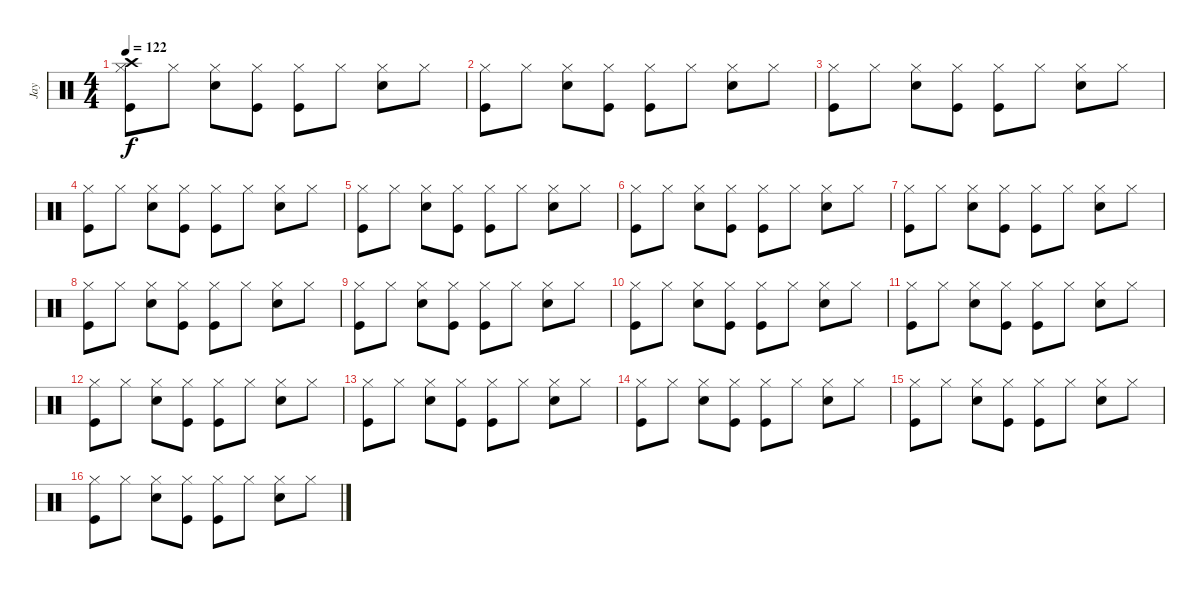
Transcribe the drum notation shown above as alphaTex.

\track ("Jay" "Jay") {instrument percussion}
\staff {score}
\articulation defaults
\ts (4 4)
\tempo 122
\clef neutral
\ks c
("Crash high (hit)" "Hi-Hat (closed)" "Kick (hit)").8{dy f} "Hi-Hat (closed)".8 ("Hi-Hat (closed)" "Electric Snare (hit)").8 ("Hi-Hat (closed)" "Kick (hit)").8 ("Hi-Hat (closed)" "Kick (hit)").8 "Hi-Hat (closed)".8 ("Hi-Hat (closed)" "Electric Snare (hit)").8 "Hi-Hat (closed)".8 |
("Hi-Hat (closed)" "Kick (hit)").8 "Hi-Hat (closed)".8 ("Hi-Hat (closed)" "Electric Snare (hit)").8 ("Hi-Hat (closed)" "Kick (hit)").8 ("Hi-Hat (closed)" "Kick (hit)").8 "Hi-Hat (closed)".8 ("Hi-Hat (closed)" "Electric Snare (hit)").8 "Hi-Hat (closed)".8 |
("Hi-Hat (closed)" "Kick (hit)").8 "Hi-Hat (closed)".8 ("Hi-Hat (closed)" "Electric Snare (hit)").8 ("Hi-Hat (closed)" "Kick (hit)").8 ("Hi-Hat (closed)" "Kick (hit)").8 "Hi-Hat (closed)".8 ("Hi-Hat (closed)" "Electric Snare (hit)").8 "Hi-Hat (closed)".8 |
("Hi-Hat (closed)" "Kick (hit)").8 "Hi-Hat (closed)".8 ("Hi-Hat (closed)" "Electric Snare (hit)").8 ("Hi-Hat (closed)" "Kick (hit)").8 ("Hi-Hat (closed)" "Kick (hit)").8 "Hi-Hat (closed)".8 ("Hi-Hat (closed)" "Electric Snare (hit)").8 "Hi-Hat (closed)".8 |
("Hi-Hat (closed)" "Kick (hit)").8 "Hi-Hat (closed)".8 ("Hi-Hat (closed)" "Electric Snare (hit)").8 ("Hi-Hat (closed)" "Kick (hit)").8 ("Hi-Hat (closed)" "Kick (hit)").8 "Hi-Hat (closed)".8 ("Hi-Hat (closed)" "Electric Snare (hit)").8 "Hi-Hat (closed)".8 |
("Hi-Hat (closed)" "Kick (hit)").8 "Hi-Hat (closed)".8 ("Hi-Hat (closed)" "Electric Snare (hit)").8 ("Hi-Hat (closed)" "Kick (hit)").8 ("Hi-Hat (closed)" "Kick (hit)").8 "Hi-Hat (closed)".8 ("Hi-Hat (closed)" "Electric Snare (hit)").8 "Hi-Hat (closed)".8 |
("Hi-Hat (closed)" "Kick (hit)").8 "Hi-Hat (closed)".8 ("Hi-Hat (closed)" "Electric Snare (hit)").8 ("Hi-Hat (closed)" "Kick (hit)").8 ("Hi-Hat (closed)" "Kick (hit)").8 "Hi-Hat (closed)".8 ("Hi-Hat (closed)" "Electric Snare (hit)").8 "Hi-Hat (closed)".8 |
("Hi-Hat (closed)" "Kick (hit)").8 "Hi-Hat (closed)".8 ("Hi-Hat (closed)" "Electric Snare (hit)").8 ("Hi-Hat (closed)" "Kick (hit)").8 ("Hi-Hat (closed)" "Kick (hit)").8 "Hi-Hat (closed)".8 ("Hi-Hat (closed)" "Electric Snare (hit)").8 "Hi-Hat (closed)".8 |
("Hi-Hat (closed)" "Kick (hit)").8 "Hi-Hat (closed)".8 ("Hi-Hat (closed)" "Electric Snare (hit)").8 ("Hi-Hat (closed)" "Kick (hit)").8 ("Hi-Hat (closed)" "Kick (hit)").8 "Hi-Hat (closed)".8 ("Hi-Hat (closed)" "Electric Snare (hit)").8 "Hi-Hat (closed)".8 |
("Hi-Hat (closed)" "Kick (hit)").8 "Hi-Hat (closed)".8 ("Hi-Hat (closed)" "Electric Snare (hit)").8 ("Hi-Hat (closed)" "Kick (hit)").8 ("Hi-Hat (closed)" "Kick (hit)").8 "Hi-Hat (closed)".8 ("Hi-Hat (closed)" "Electric Snare (hit)").8 "Hi-Hat (closed)".8 |
("Hi-Hat (closed)" "Kick (hit)").8 "Hi-Hat (closed)".8 ("Hi-Hat (closed)" "Electric Snare (hit)").8 ("Hi-Hat (closed)" "Kick (hit)").8 ("Hi-Hat (closed)" "Kick (hit)").8 "Hi-Hat (closed)".8 ("Hi-Hat (closed)" "Electric Snare (hit)").8 "Hi-Hat (closed)".8 |
("Hi-Hat (closed)" "Kick (hit)").8 "Hi-Hat (closed)".8 ("Hi-Hat (closed)" "Electric Snare (hit)").8 ("Hi-Hat (closed)" "Kick (hit)").8 ("Hi-Hat (closed)" "Kick (hit)").8 "Hi-Hat (closed)".8 ("Hi-Hat (closed)" "Electric Snare (hit)").8 "Hi-Hat (closed)".8 |
("Hi-Hat (closed)" "Kick (hit)").8 "Hi-Hat (closed)".8 ("Hi-Hat (closed)" "Electric Snare (hit)").8 ("Hi-Hat (closed)" "Kick (hit)").8 ("Hi-Hat (closed)" "Kick (hit)").8 "Hi-Hat (closed)".8 ("Hi-Hat (closed)" "Electric Snare (hit)").8 "Hi-Hat (closed)".8 |
("Hi-Hat (closed)" "Kick (hit)").8 "Hi-Hat (closed)".8 ("Hi-Hat (closed)" "Electric Snare (hit)").8 ("Hi-Hat (closed)" "Kick (hit)").8 ("Hi-Hat (closed)" "Kick (hit)").8 "Hi-Hat (closed)".8 ("Hi-Hat (closed)" "Electric Snare (hit)").8 "Hi-Hat (closed)".8 |
("Hi-Hat (closed)" "Kick (hit)").8 "Hi-Hat (closed)".8 ("Hi-Hat (closed)" "Electric Snare (hit)").8 ("Hi-Hat (closed)" "Kick (hit)").8 ("Hi-Hat (closed)" "Kick (hit)").8 "Hi-Hat (closed)".8 ("Hi-Hat (closed)" "Electric Snare (hit)").8 "Hi-Hat (closed)".8 |
("Hi-Hat (closed)" "Kick (hit)").8 "Hi-Hat (closed)".8 ("Hi-Hat (closed)" "Electric Snare (hit)").8 ("Hi-Hat (closed)" "Kick (hit)").8 ("Hi-Hat (closed)" "Kick (hit)").8 "Hi-Hat (closed)".8 ("Hi-Hat (closed)" "Electric Snare (hit)").8 "Hi-Hat (closed)".8
